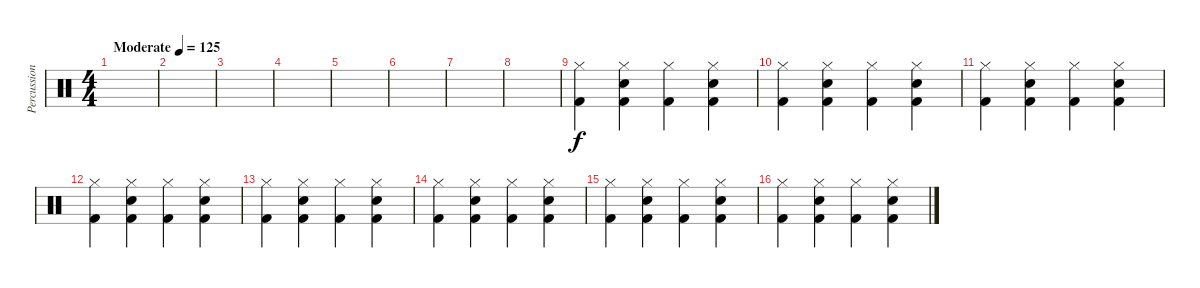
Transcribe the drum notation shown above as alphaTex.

\track ("Percussion" "Percussion") {instrument percussion}
\staff {score}
\articulation defaults
\ts (4 4)
\tempo (125 "Moderate")
\clef neutral
\ks c
|
|
|
|
|
|
|
|
("Hi-Hat (closed)" "Kick (hit) 2").4 ("Hi-Hat (closed)" "Hand Clap (hit)" "Kick (hit) 2").4 ("Hi-Hat (closed)" "Kick (hit) 2").4 ("Hi-Hat (closed)" "Hand Clap (hit)" "Kick (hit) 2").4 |
("Hi-Hat (closed)" "Kick (hit) 2").4 ("Hi-Hat (closed)" "Hand Clap (hit)" "Kick (hit) 2").4 ("Hi-Hat (closed)" "Kick (hit) 2").4 ("Hi-Hat (closed)" "Hand Clap (hit)" "Kick (hit) 2").4 |
("Hi-Hat (closed)" "Kick (hit) 2").4 ("Hi-Hat (closed)" "Hand Clap (hit)" "Kick (hit) 2").4 ("Hi-Hat (closed)" "Kick (hit) 2").4 ("Hi-Hat (closed)" "Hand Clap (hit)" "Kick (hit) 2").4 |
("Hi-Hat (closed)" "Kick (hit) 2").4 ("Hi-Hat (closed)" "Hand Clap (hit)" "Kick (hit) 2").4 ("Hi-Hat (closed)" "Kick (hit) 2").4 ("Hi-Hat (closed)" "Hand Clap (hit)" "Kick (hit) 2").4 |
("Hi-Hat (closed)" "Kick (hit) 2").4 ("Hi-Hat (closed)" "Hand Clap (hit)" "Kick (hit) 2").4 ("Hi-Hat (closed)" "Kick (hit) 2").4 ("Hi-Hat (closed)" "Hand Clap (hit)" "Kick (hit) 2").4 |
("Hi-Hat (closed)" "Kick (hit) 2").4 ("Hi-Hat (closed)" "Hand Clap (hit)" "Kick (hit) 2").4 ("Hi-Hat (closed)" "Kick (hit) 2").4 ("Hi-Hat (closed)" "Hand Clap (hit)" "Kick (hit) 2").4 |
("Hi-Hat (closed)" "Kick (hit) 2").4 ("Hi-Hat (closed)" "Hand Clap (hit)" "Kick (hit) 2").4 ("Hi-Hat (closed)" "Kick (hit) 2").4 ("Hi-Hat (closed)" "Hand Clap (hit)" "Kick (hit) 2").4 |
("Hi-Hat (closed)" "Kick (hit) 2").4 ("Hi-Hat (closed)" "Hand Clap (hit)" "Kick (hit) 2").4 ("Hi-Hat (closed)" "Kick (hit) 2").4 ("Hi-Hat (closed)" "Hand Clap (hit)" "Kick (hit) 2").4
